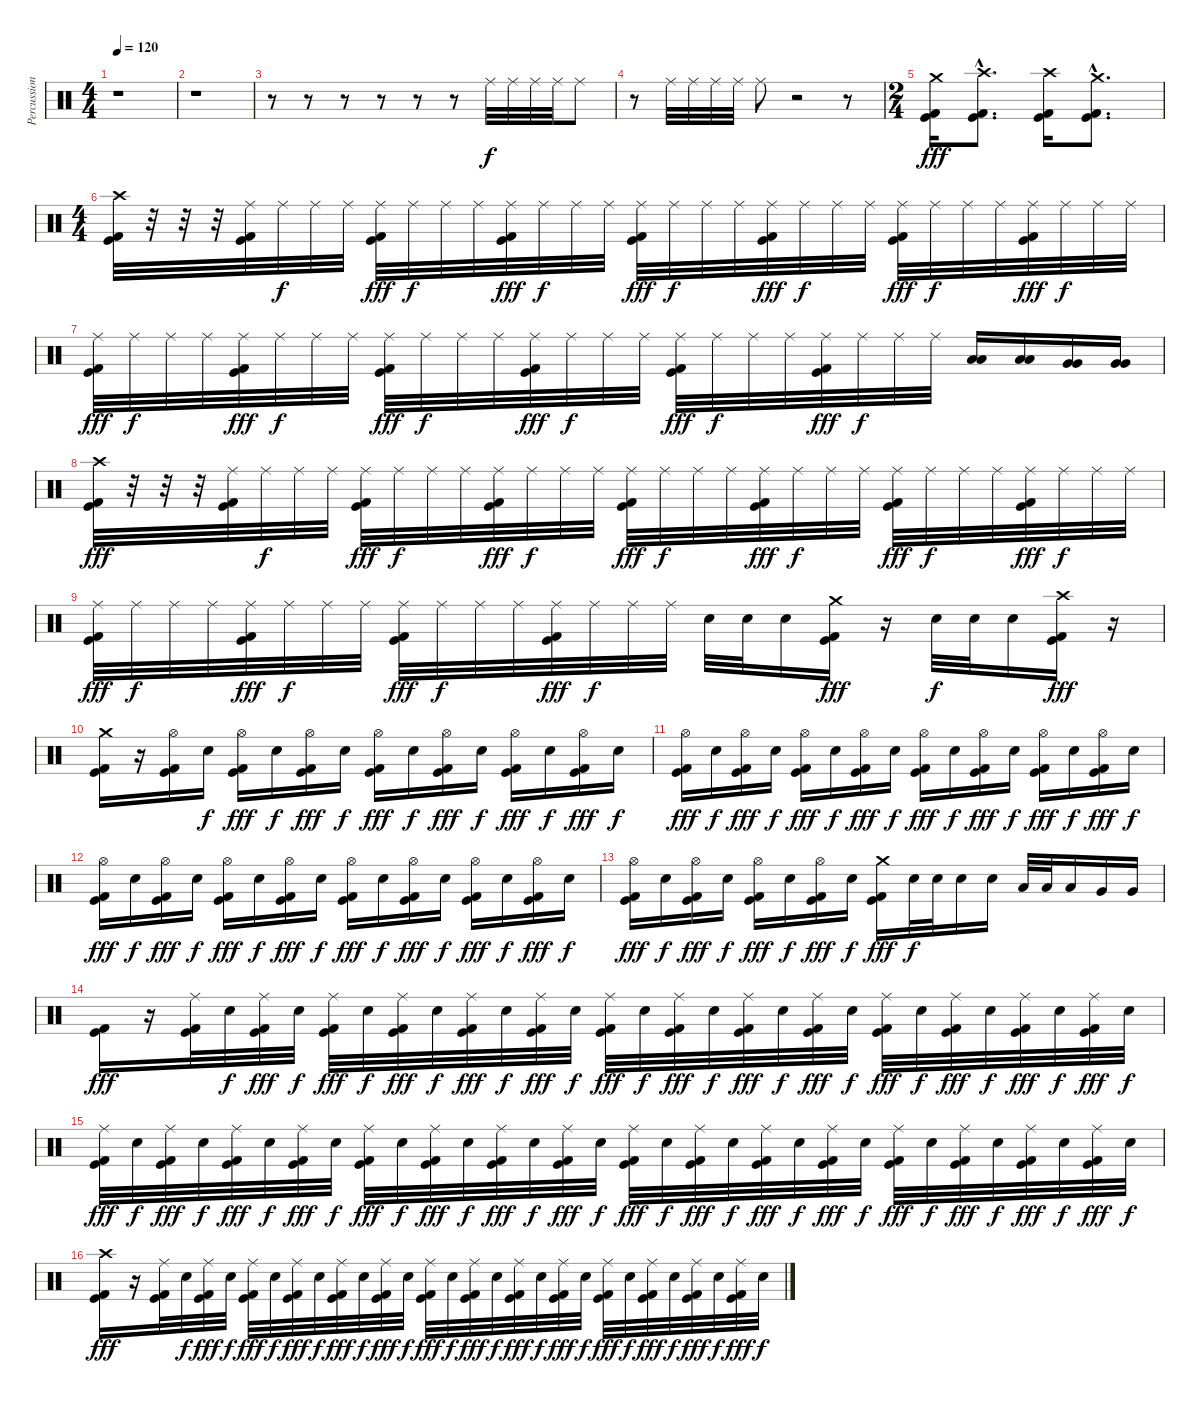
\track ("Percussion" "Percussion") {instrument percussion}
\staff {score}
\articulation defaults
\ts (4 4)
\tempo 120
\clef neutral
\ks c
r.1{dy f} |
r.1 |
r.8 r.8 r.8 r.8 r.8 r.8 "Ride (middle)".32 "Ride (middle)".32 "Ride (middle)".32 "Ride (middle)".32 "Ride (middle)".8 |
r.8 "Ride (middle)".32 "Ride (middle)".32 "Ride (middle)".32 "Ride (middle)".32 "Ride (middle)".8 r.2 r.8 |
\ts (2 4)
("Crash medium (hit)" "Kick (hit)" "Kick (hit) 2").16{dy fff} ("Crash high (hit)"{hac} "Kick (hit)"{hac} "Kick (hit) 2"{hac}).8{d} ("Crash high (hit)" "Kick (hit)" "Kick (hit) 2").16 ("Crash medium (hit)"{hac} "Kick (hit)"{hac} "Kick (hit) 2"{hac}).8{d} |
\ts (4 4)
("Crash high (hit)" "Kick (hit)" "Kick (hit) 2").32 r.32 r.32 r.32 ("Ride (middle)" "Kick (hit)" "Kick (hit) 2").32 "Ride (middle)".32{dy f} "Ride (middle)".32 "Ride (middle)".32 ("Ride (middle)" "Kick (hit)" "Kick (hit) 2").32{dy fff} "Ride (middle)".32{dy f} "Ride (middle)".32 "Ride (middle)".32 ("Ride (middle)" "Kick (hit)" "Kick (hit) 2").32{dy fff} "Ride (middle)".32{dy f} "Ride (middle)".32 "Ride (middle)".32 ("Ride (middle)" "Kick (hit)" "Kick (hit) 2").32{dy fff} "Ride (middle)".32{dy f} "Ride (middle)".32 "Ride (middle)".32 ("Ride (middle)" "Kick (hit)" "Kick (hit) 2").32{dy fff} "Ride (middle)".32{dy f} "Ride (middle)".32 "Ride (middle)".32 ("Ride (middle)" "Kick (hit)" "Kick (hit) 2").32{dy fff} "Ride (middle)".32{dy f} "Ride (middle)".32 "Ride (middle)".32 ("Ride (middle)" "Kick (hit)" "Kick (hit) 2").32{dy fff} "Ride (middle)".32{dy f} "Ride (middle)".32 "Ride (middle)".32 |
("Ride (middle)" "Kick (hit)" "Kick (hit) 2").32{dy fff} "Ride (middle)".32{dy f} "Ride (middle)".32 "Ride (middle)".32 ("Ride (middle)" "Kick (hit)" "Kick (hit) 2").32{dy fff} "Ride (middle)".32{dy f} "Ride (middle)".32 "Ride (middle)".32 ("Ride (middle)" "Kick (hit)" "Kick (hit) 2").32{dy fff} "Ride (middle)".32{dy f} "Ride (middle)".32 "Ride (middle)".32 ("Ride (middle)" "Kick (hit)" "Kick (hit) 2").32{dy fff} "Ride (middle)".32{dy f} "Ride (middle)".32 "Ride (middle)".32 ("Ride (middle)" "Kick (hit)" "Kick (hit) 2").32{dy fff} "Ride (middle)".32{dy f} "Ride (middle)".32 "Ride (middle)".32 ("Ride (middle)" "Kick (hit)" "Kick (hit) 2").32{dy fff} "Ride (middle)".32{dy f} "Ride (middle)".32 "Ride (middle)".32 ("Low Tom (hit)" "Low Tom (hit)").16{bd 60} ("Low Tom (hit)" "Low Tom (hit)").16{bd 60} ("Very Low Tom (hit)" "Very Low Tom (hit)").16{bd 60} ("Very Low Tom (hit)" "Very Low Tom (hit)").16{bd 60} |
("Crash high (hit)" "Kick (hit)" "Kick (hit) 2").32{dy fff} r.32 r.32 r.32 ("Ride (middle)" "Kick (hit)" "Kick (hit) 2").32 "Ride (middle)".32{dy f} "Ride (middle)".32 "Ride (middle)".32 ("Ride (middle)" "Kick (hit)" "Kick (hit) 2").32{dy fff} "Ride (middle)".32{dy f} "Ride (middle)".32 "Ride (middle)".32 ("Ride (middle)" "Kick (hit)" "Kick (hit) 2").32{dy fff} "Ride (middle)".32{dy f} "Ride (middle)".32 "Ride (middle)".32 ("Ride (middle)" "Kick (hit)" "Kick (hit) 2").32{dy fff} "Ride (middle)".32{dy f} "Ride (middle)".32 "Ride (middle)".32 ("Ride (middle)" "Kick (hit)" "Kick (hit) 2").32{dy fff} "Ride (middle)".32{dy f} "Ride (middle)".32 "Ride (middle)".32 ("Ride (middle)" "Kick (hit)" "Kick (hit) 2").32{dy fff} "Ride (middle)".32{dy f} "Ride (middle)".32 "Ride (middle)".32 ("Ride (middle)" "Kick (hit)" "Kick (hit) 2").32{dy fff} "Ride (middle)".32{dy f} "Ride (middle)".32 "Ride (middle)".32 |
("Ride (middle)" "Kick (hit)" "Kick (hit) 2").32{dy fff} "Ride (middle)".32{dy f} "Ride (middle)".32 "Ride (middle)".32 ("Ride (middle)" "Kick (hit)" "Kick (hit) 2").32{dy fff} "Ride (middle)".32{dy f} "Ride (middle)".32 "Ride (middle)".32 ("Ride (middle)" "Kick (hit)" "Kick (hit) 2").32{dy fff} "Ride (middle)".32{dy f} "Ride (middle)".32 "Ride (middle)".32 ("Ride (middle)" "Kick (hit)" "Kick (hit) 2").32{dy fff} "Ride (middle)".32{dy f} "Ride (middle)".32 "Ride (middle)".32 "Electric Snare (hit)".32 "Electric Snare (hit)".32 "Electric Snare (hit)".16 ("Crash medium (hit)" "Kick (hit)" "Kick (hit) 2").16{dy fff} r.16 "Electric Snare (hit)".32{dy f} "Electric Snare (hit)".32 "Electric Snare (hit)".16 ("Crash high (hit)" "Kick (hit)" "Kick (hit) 2").16{dy fff} r.16 |
("Crash medium (hit)" "Kick (hit)" "Kick (hit) 2").16 r.16 ("Hi-Hat (open)" "Kick (hit)" "Kick (hit) 2").16 "Electric Snare (hit)".16{dy f} ("Hi-Hat (open)" "Kick (hit)" "Kick (hit) 2").16{dy fff} "Electric Snare (hit)".16{dy f} ("Hi-Hat (open)" "Kick (hit)" "Kick (hit) 2").16{dy fff} "Electric Snare (hit)".16{dy f} ("Hi-Hat (open)" "Kick (hit)" "Kick (hit) 2").16{dy fff} "Electric Snare (hit)".16{dy f} ("Hi-Hat (open)" "Kick (hit)" "Kick (hit) 2").16{dy fff} "Electric Snare (hit)".16{dy f} ("Hi-Hat (open)" "Kick (hit)" "Kick (hit) 2").16{dy fff} "Electric Snare (hit)".16{dy f} ("Hi-Hat (open)" "Kick (hit)" "Kick (hit) 2").16{dy fff} "Electric Snare (hit)".16{dy f} |
("Hi-Hat (open)" "Kick (hit)" "Kick (hit) 2").16{dy fff} "Electric Snare (hit)".16{dy f} ("Hi-Hat (open)" "Kick (hit)" "Kick (hit) 2").16{dy fff} "Electric Snare (hit)".16{dy f} ("Hi-Hat (open)" "Kick (hit)" "Kick (hit) 2").16{dy fff} "Electric Snare (hit)".16{dy f} ("Hi-Hat (open)" "Kick (hit)" "Kick (hit) 2").16{dy fff} "Electric Snare (hit)".16{dy f} ("Hi-Hat (open)" "Kick (hit)" "Kick (hit) 2").16{dy fff} "Electric Snare (hit)".16{dy f} ("Hi-Hat (open)" "Kick (hit)" "Kick (hit) 2").16{dy fff} "Electric Snare (hit)".16{dy f} ("Hi-Hat (open)" "Kick (hit)" "Kick (hit) 2").16{dy fff} "Electric Snare (hit)".16{dy f} ("Hi-Hat (open)" "Kick (hit)" "Kick (hit) 2").16{dy fff} "Electric Snare (hit)".16{dy f} |
("Hi-Hat (open)" "Kick (hit)" "Kick (hit) 2").16{dy fff} "Electric Snare (hit)".16{dy f} ("Hi-Hat (open)" "Kick (hit)" "Kick (hit) 2").16{dy fff} "Electric Snare (hit)".16{dy f} ("Hi-Hat (open)" "Kick (hit)" "Kick (hit) 2").16{dy fff} "Electric Snare (hit)".16{dy f} ("Hi-Hat (open)" "Kick (hit)" "Kick (hit) 2").16{dy fff} "Electric Snare (hit)".16{dy f} ("Hi-Hat (open)" "Kick (hit)" "Kick (hit) 2").16{dy fff} "Electric Snare (hit)".16{dy f} ("Hi-Hat (open)" "Kick (hit)" "Kick (hit) 2").16{dy fff} "Electric Snare (hit)".16{dy f} ("Hi-Hat (open)" "Kick (hit)" "Kick (hit) 2").16{dy fff} "Electric Snare (hit)".16{dy f} ("Hi-Hat (open)" "Kick (hit)" "Kick (hit) 2").16{dy fff} "Electric Snare (hit)".16{dy f} |
("Hi-Hat (open)" "Kick (hit)" "Kick (hit) 2").16{dy fff} "Electric Snare (hit)".16{dy f} ("Hi-Hat (open)" "Kick (hit)" "Kick (hit) 2").16{dy fff} "Electric Snare (hit)".16{dy f} ("Hi-Hat (open)" "Kick (hit)" "Kick (hit) 2").16{dy fff} "Electric Snare (hit)".16{dy f} ("Hi-Hat (open)" "Kick (hit)" "Kick (hit) 2").16{dy fff} "Electric Snare (hit)".16{dy f} ("Crash medium (hit)" "Kick (hit)" "Kick (hit) 2").16{dy fff} "Electric Snare (hit)".32{dy f} "Electric Snare (hit)".32 "Electric Snare (hit)".16 "Electric Snare (hit)".16 "Low Tom (hit)".32 "Low Tom (hit)".32 "Low Tom (hit)".16 "Very Low Tom (hit)".16 "Very Low Tom (hit)".16 |
("Kick (hit)" "Kick (hit) 2").16{dy fff} r.16 ("Ride (middle)" "Kick (hit)" "Kick (hit) 2").32 "Electric Snare (hit)".32{dy f} ("Ride (middle)" "Kick (hit)" "Kick (hit) 2").32{dy fff} "Electric Snare (hit)".32{dy f} ("Ride (middle)" "Kick (hit)" "Kick (hit) 2").32{dy fff} "Electric Snare (hit)".32{dy f} ("Ride (middle)" "Kick (hit)" "Kick (hit) 2").32{dy fff} "Electric Snare (hit)".32{dy f} ("Ride (middle)" "Kick (hit)" "Kick (hit) 2").32{dy fff} "Electric Snare (hit)".32{dy f} ("Ride (middle)" "Kick (hit)" "Kick (hit) 2").32{dy fff} "Electric Snare (hit)".32{dy f} ("Ride (middle)" "Kick (hit)" "Kick (hit) 2").32{dy fff} "Electric Snare (hit)".32{dy f} ("Ride (middle)" "Kick (hit)" "Kick (hit) 2").32{dy fff} "Electric Snare (hit)".32{dy f} ("Ride (middle)" "Kick (hit)" "Kick (hit) 2").32{dy fff} "Electric Snare (hit)".32{dy f} ("Ride (middle)" "Kick (hit)" "Kick (hit) 2").32{dy fff} "Electric Snare (hit)".32{dy f} ("Ride (middle)" "Kick (hit)" "Kick (hit) 2").32{dy fff} "Electric Snare (hit)".32{dy f} ("Ride (middle)" "Kick (hit)" "Kick (hit) 2").32{dy fff} "Electric Snare (hit)".32{dy f} ("Ride (middle)" "Kick (hit)" "Kick (hit) 2").32{dy fff} "Electric Snare (hit)".32{dy f} ("Ride (middle)" "Kick (hit)" "Kick (hit) 2").32{dy fff} "Electric Snare (hit)".32{dy f} |
("Ride (middle)" "Kick (hit)" "Kick (hit) 2").32{dy fff} "Electric Snare (hit)".32{dy f} ("Ride (middle)" "Kick (hit)" "Kick (hit) 2").32{dy fff} "Electric Snare (hit)".32{dy f} ("Ride (middle)" "Kick (hit)" "Kick (hit) 2").32{dy fff} "Electric Snare (hit)".32{dy f} ("Ride (middle)" "Kick (hit)" "Kick (hit) 2").32{dy fff} "Electric Snare (hit)".32{dy f} ("Ride (middle)" "Kick (hit)" "Kick (hit) 2").32{dy fff} "Electric Snare (hit)".32{dy f} ("Ride (middle)" "Kick (hit)" "Kick (hit) 2").32{dy fff} "Electric Snare (hit)".32{dy f} ("Ride (middle)" "Kick (hit)" "Kick (hit) 2").32{dy fff} "Electric Snare (hit)".32{dy f} ("Ride (middle)" "Kick (hit)" "Kick (hit) 2").32{dy fff} "Electric Snare (hit)".32{dy f} ("Ride (middle)" "Kick (hit)" "Kick (hit) 2").32{dy fff} "Electric Snare (hit)".32{dy f} ("Ride (middle)" "Kick (hit)" "Kick (hit) 2").32{dy fff} "Electric Snare (hit)".32{dy f} ("Ride (middle)" "Kick (hit)" "Kick (hit) 2").32{dy fff} "Electric Snare (hit)".32{dy f} ("Ride (middle)" "Kick (hit)" "Kick (hit) 2").32{dy fff} "Electric Snare (hit)".32{dy f} ("Ride (middle)" "Kick (hit)" "Kick (hit) 2").32{dy fff} "Electric Snare (hit)".32{dy f} ("Ride (middle)" "Kick (hit)" "Kick (hit) 2").32{dy fff} "Electric Snare (hit)".32{dy f} ("Ride (middle)" "Kick (hit)" "Kick (hit) 2").32{dy fff} "Electric Snare (hit)".32{dy f} ("Ride (middle)" "Kick (hit)" "Kick (hit) 2").32{dy fff} "Electric Snare (hit)".32{dy f} |
("Crash high (hit)" "Kick (hit)" "Kick (hit) 2").16{dy fff} r.16 ("Ride (middle)" "Kick (hit)" "Kick (hit) 2").32 "Electric Snare (hit)".32{dy f} ("Ride (middle)" "Kick (hit)" "Kick (hit) 2").32{dy fff} "Electric Snare (hit)".32{dy f} ("Ride (middle)" "Kick (hit)" "Kick (hit) 2").32{dy fff} "Electric Snare (hit)".32{dy f} ("Ride (middle)" "Kick (hit)" "Kick (hit) 2").32{dy fff} "Electric Snare (hit)".32{dy f} ("Ride (middle)" "Kick (hit)" "Kick (hit) 2").32{dy fff} "Electric Snare (hit)".32{dy f} ("Ride (middle)" "Kick (hit)" "Kick (hit) 2").32{dy fff} "Electric Snare (hit)".32{dy f} ("Ride (middle)" "Kick (hit)" "Kick (hit) 2").32{dy fff} "Electric Snare (hit)".32{dy f} ("Ride (middle)" "Kick (hit)" "Kick (hit) 2").32{dy fff} "Electric Snare (hit)".32{dy f} ("Ride (middle)" "Kick (hit)" "Kick (hit) 2").32{dy fff} "Electric Snare (hit)".32{dy f} ("Ride (middle)" "Kick (hit)" "Kick (hit) 2").32{dy fff} "Electric Snare (hit)".32{dy f} ("Ride (middle)" "Kick (hit)" "Kick (hit) 2").32{dy fff} "Electric Snare (hit)".32{dy f} ("Ride (middle)" "Kick (hit)" "Kick (hit) 2").32{dy fff} "Electric Snare (hit)".32{dy f} ("Ride (middle)" "Kick (hit)" "Kick (hit) 2").32{dy fff} "Electric Snare (hit)".32{dy f} ("Ride (middle)" "Kick (hit)" "Kick (hit) 2").32{dy fff} "Electric Snare (hit)".32{dy f}
